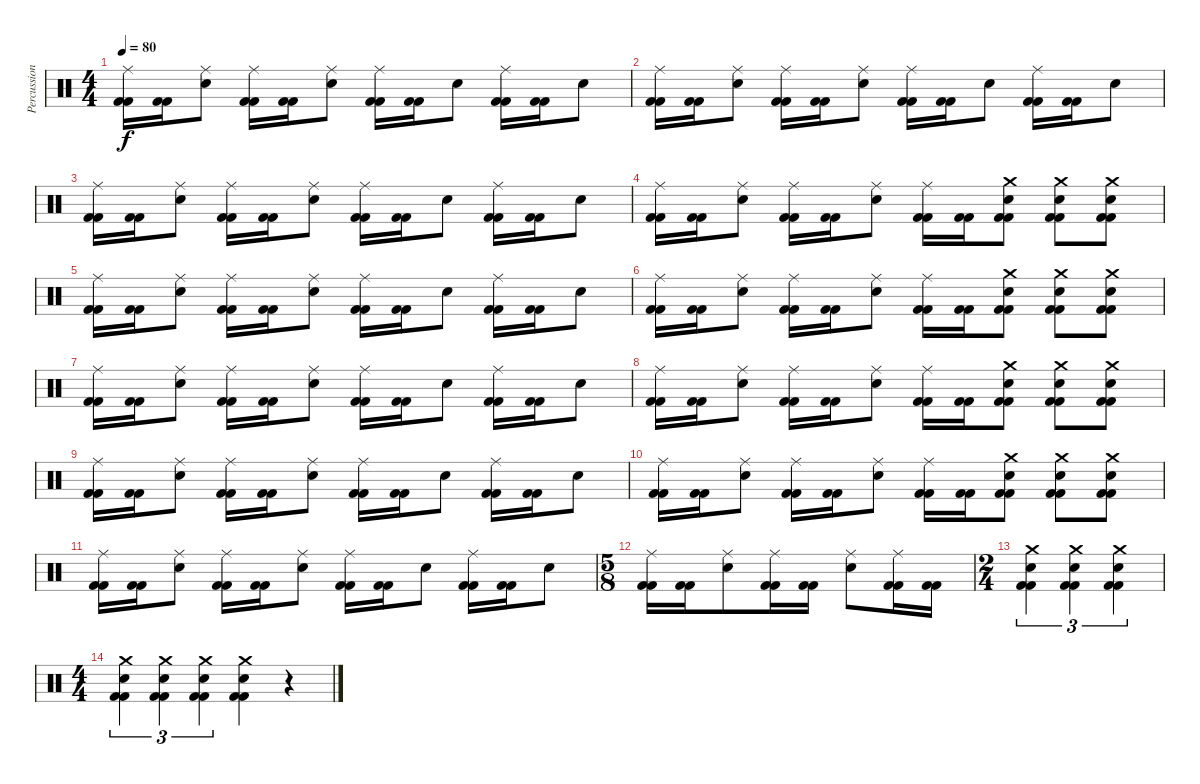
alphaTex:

\track ("Percussions" "Percussion") {instrument percussion}
\staff {score}
\articulation defaults
\ts (4 4)
\tempo 80
\clef neutral
\ks c
("Kick (hit) 2" "Kick (hit) 2" "Ride (middle)").16{dy f} ("Kick (hit) 2" "Kick (hit) 2").16 ("Snare (hit) 2" "Ride (middle)").8 ("Kick (hit) 2" "Kick (hit) 2" "Ride (middle)").16 ("Kick (hit) 2" "Kick (hit) 2").16 ("Snare (hit) 2" "Ride (middle)").8 ("Kick (hit) 2" "Kick (hit) 2" "Ride (middle)").16 ("Kick (hit) 2" "Kick (hit) 2").16 "Snare (hit) 2".8 ("Kick (hit) 2" "Kick (hit) 2" "Ride (middle)").16 ("Kick (hit) 2" "Kick (hit) 2").16 "Snare (hit) 2".8 |
("Kick (hit) 2" "Kick (hit) 2" "Ride (middle)").16 ("Kick (hit) 2" "Kick (hit) 2").16 ("Snare (hit) 2" "Ride (middle)").8 ("Kick (hit) 2" "Kick (hit) 2" "Ride (middle)").16 ("Kick (hit) 2" "Kick (hit) 2").16 ("Snare (hit) 2" "Ride (middle)").8 ("Kick (hit) 2" "Kick (hit) 2" "Ride (middle)").16 ("Kick (hit) 2" "Kick (hit) 2").16 "Snare (hit) 2".8 ("Kick (hit) 2" "Kick (hit) 2" "Ride (middle)").16 ("Kick (hit) 2" "Kick (hit) 2").16 "Snare (hit) 2".8 |
("Kick (hit) 2" "Kick (hit) 2" "Ride (middle)").16 ("Kick (hit) 2" "Kick (hit) 2").16 ("Snare (hit) 2" "Ride (middle)").8 ("Kick (hit) 2" "Kick (hit) 2" "Ride (middle)").16 ("Kick (hit) 2" "Kick (hit) 2").16 ("Snare (hit) 2" "Ride (middle)").8 ("Kick (hit) 2" "Kick (hit) 2" "Ride (middle)").16 ("Kick (hit) 2" "Kick (hit) 2").16 "Snare (hit) 2".8 ("Kick (hit) 2" "Kick (hit) 2" "Ride (middle)").16 ("Kick (hit) 2" "Kick (hit) 2").16 "Snare (hit) 2".8 |
("Kick (hit) 2" "Kick (hit) 2" "Ride (middle)").16 ("Kick (hit) 2" "Kick (hit) 2").16 ("Snare (hit) 2" "Ride (middle)").8 ("Kick (hit) 2" "Kick (hit) 2" "Ride (middle)").16 ("Kick (hit) 2" "Kick (hit) 2").16 ("Snare (hit) 2" "Ride (middle)").8 ("Kick (hit) 2" "Kick (hit) 2" "Ride (middle)").16 ("Kick (hit) 2" "Kick (hit) 2").16 ("Snare (hit) 2" "Kick (hit) 2" "Kick (hit) 2" "Crash medium (hit)").8 ("Snare (hit) 2" "Kick (hit) 2" "Kick (hit) 2" "Crash medium (hit)").8 ("Snare (hit) 2" "Kick (hit) 2" "Kick (hit) 2" "Crash medium (hit)").8 |
("Kick (hit) 2" "Kick (hit) 2" "Ride (middle)").16 ("Kick (hit) 2" "Kick (hit) 2").16 ("Snare (hit) 2" "Ride (middle)").8 ("Kick (hit) 2" "Kick (hit) 2" "Ride (middle)").16 ("Kick (hit) 2" "Kick (hit) 2").16 ("Snare (hit) 2" "Ride (middle)").8 ("Kick (hit) 2" "Kick (hit) 2" "Ride (middle)").16 ("Kick (hit) 2" "Kick (hit) 2").16 "Snare (hit) 2".8 ("Kick (hit) 2" "Kick (hit) 2" "Ride (middle)").16 ("Kick (hit) 2" "Kick (hit) 2").16 "Snare (hit) 2".8 |
("Kick (hit) 2" "Kick (hit) 2" "Ride (middle)").16 ("Kick (hit) 2" "Kick (hit) 2").16 ("Snare (hit) 2" "Ride (middle)").8 ("Kick (hit) 2" "Kick (hit) 2" "Ride (middle)").16 ("Kick (hit) 2" "Kick (hit) 2").16 ("Snare (hit) 2" "Ride (middle)").8 ("Kick (hit) 2" "Kick (hit) 2" "Ride (middle)").16 ("Kick (hit) 2" "Kick (hit) 2").16 ("Snare (hit) 2" "Kick (hit) 2" "Kick (hit) 2" "Crash medium (hit)").8 ("Snare (hit) 2" "Kick (hit) 2" "Kick (hit) 2" "Crash medium (hit)").8 ("Snare (hit) 2" "Kick (hit) 2" "Kick (hit) 2" "Crash medium (hit)").8 |
("Kick (hit) 2" "Kick (hit) 2" "Ride (middle)").16 ("Kick (hit) 2" "Kick (hit) 2").16 ("Snare (hit) 2" "Ride (middle)").8 ("Kick (hit) 2" "Kick (hit) 2" "Ride (middle)").16 ("Kick (hit) 2" "Kick (hit) 2").16 ("Snare (hit) 2" "Ride (middle)").8 ("Kick (hit) 2" "Kick (hit) 2" "Ride (middle)").16 ("Kick (hit) 2" "Kick (hit) 2").16 "Snare (hit) 2".8 ("Kick (hit) 2" "Kick (hit) 2" "Ride (middle)").16 ("Kick (hit) 2" "Kick (hit) 2").16 "Snare (hit) 2".8 |
("Kick (hit) 2" "Kick (hit) 2" "Ride (middle)").16 ("Kick (hit) 2" "Kick (hit) 2").16 ("Snare (hit) 2" "Ride (middle)").8 ("Kick (hit) 2" "Kick (hit) 2" "Ride (middle)").16 ("Kick (hit) 2" "Kick (hit) 2").16 ("Snare (hit) 2" "Ride (middle)").8 ("Kick (hit) 2" "Kick (hit) 2" "Ride (middle)").16 ("Kick (hit) 2" "Kick (hit) 2").16 ("Snare (hit) 2" "Kick (hit) 2" "Kick (hit) 2" "Crash medium (hit)").8 ("Snare (hit) 2" "Kick (hit) 2" "Kick (hit) 2" "Crash medium (hit)").8 ("Snare (hit) 2" "Kick (hit) 2" "Kick (hit) 2" "Crash medium (hit)").8 |
("Kick (hit) 2" "Kick (hit) 2" "Ride (middle)").16 ("Kick (hit) 2" "Kick (hit) 2").16 ("Snare (hit) 2" "Ride (middle)").8 ("Kick (hit) 2" "Kick (hit) 2" "Ride (middle)").16 ("Kick (hit) 2" "Kick (hit) 2").16 ("Snare (hit) 2" "Ride (middle)").8 ("Kick (hit) 2" "Kick (hit) 2" "Ride (middle)").16 ("Kick (hit) 2" "Kick (hit) 2").16 "Snare (hit) 2".8 ("Kick (hit) 2" "Kick (hit) 2" "Ride (middle)").16 ("Kick (hit) 2" "Kick (hit) 2").16 "Snare (hit) 2".8 |
("Kick (hit) 2" "Kick (hit) 2" "Ride (middle)").16 ("Kick (hit) 2" "Kick (hit) 2").16 ("Snare (hit) 2" "Ride (middle)").8 ("Kick (hit) 2" "Kick (hit) 2" "Ride (middle)").16 ("Kick (hit) 2" "Kick (hit) 2").16 ("Snare (hit) 2" "Ride (middle)").8 ("Kick (hit) 2" "Kick (hit) 2" "Ride (middle)").16 ("Kick (hit) 2" "Kick (hit) 2").16 ("Snare (hit) 2" "Kick (hit) 2" "Kick (hit) 2" "Crash medium (hit)").8 ("Snare (hit) 2" "Kick (hit) 2" "Kick (hit) 2" "Crash medium (hit)").8 ("Snare (hit) 2" "Kick (hit) 2" "Kick (hit) 2" "Crash medium (hit)").8 |
("Kick (hit) 2" "Kick (hit) 2" "Ride (middle)").16 ("Kick (hit) 2" "Kick (hit) 2").16 ("Snare (hit) 2" "Ride (middle)").8 ("Kick (hit) 2" "Kick (hit) 2" "Ride (middle)").16 ("Kick (hit) 2" "Kick (hit) 2").16 ("Snare (hit) 2" "Ride (middle)").8 ("Kick (hit) 2" "Kick (hit) 2" "Ride (middle)").16 ("Kick (hit) 2" "Kick (hit) 2").16 "Snare (hit) 2".8 ("Kick (hit) 2" "Kick (hit) 2" "Ride (middle)").16 ("Kick (hit) 2" "Kick (hit) 2").16 "Snare (hit) 2".8 |
\ts (5 8)
("Kick (hit) 2" "Kick (hit) 2" "Ride (middle)").16 ("Kick (hit) 2" "Kick (hit) 2").16 ("Snare (hit) 2" "Ride (middle)").8 ("Kick (hit) 2" "Kick (hit) 2" "Ride (middle)").16 ("Kick (hit) 2" "Kick (hit) 2").16 ("Snare (hit) 2" "Ride (middle)").8 ("Kick (hit) 2" "Kick (hit) 2" "Ride (middle)").16 ("Kick (hit) 2" "Kick (hit) 2").16 |
\ts (2 4)
("Snare (hit) 2" "Kick (hit) 2" "Kick (hit) 2" "Crash medium (hit)").4{tu (3 2)} ("Snare (hit) 2" "Kick (hit) 2" "Kick (hit) 2" "Crash medium (hit)").4{tu (3 2)} ("Snare (hit) 2" "Kick (hit) 2" "Kick (hit) 2" "Crash medium (hit)").4{tu (3 2)} |
\ts (4 4)
("Snare (hit) 2" "Kick (hit) 2" "Kick (hit) 2" "Crash medium (hit)").4{tu (3 2)} ("Snare (hit) 2" "Kick (hit) 2" "Kick (hit) 2" "Crash medium (hit)").4{tu (3 2)} ("Snare (hit) 2" "Kick (hit) 2" "Kick (hit) 2" "Crash medium (hit)").4{tu (3 2)} ("Snare (hit) 2" "Kick (hit) 2" "Kick (hit) 2" "Crash medium (hit)").4 r.4
